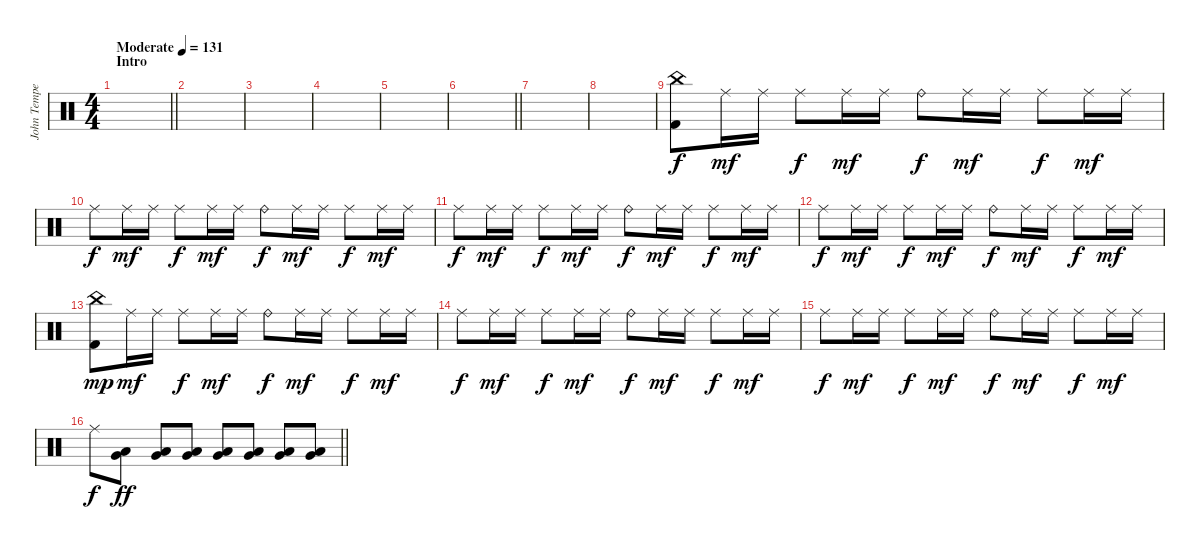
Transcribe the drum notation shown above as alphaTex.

\track ("John Tempesta" "John Tempe") {instrument percussion}
\staff {score}
\articulation defaults
\ts (4 4)
\section ("" "Intro")
\tempo (131 "Moderate")
\clef neutral
\barLineRight lightlight
\ks c
|
|
|
|
|
\barLineRight lightlight
|
|
|
("China (hit)" "Kick (hit) 2").8 "Ride (middle)".16{dy mf} "Ride (middle)".16 "Ride (middle)".8{dy f} "Ride (middle)".16{dy mf} "Ride (middle)".16 "Ride (bell)".8{dy f} "Ride (middle)".16{dy mf} "Ride (middle)".16 "Ride (middle)".8{dy f} "Ride (middle)".16{dy mf} "Ride (middle)".16 |
"Ride (middle)".8{dy f} "Ride (middle)".16{dy mf} "Ride (middle)".16 "Ride (middle)".8{dy f} "Ride (middle)".16{dy mf} "Ride (middle)".16 "Ride (bell)".8{dy f} "Ride (middle)".16{dy mf} "Ride (middle)".16 "Ride (middle)".8{dy f} "Ride (middle)".16{dy mf} "Ride (middle)".16 |
"Ride (middle)".8{dy f} "Ride (middle)".16{dy mf} "Ride (middle)".16 "Ride (middle)".8{dy f} "Ride (middle)".16{dy mf} "Ride (middle)".16 "Ride (bell)".8{dy f} "Ride (middle)".16{dy mf} "Ride (middle)".16 "Ride (middle)".8{dy f} "Ride (middle)".16{dy mf} "Ride (middle)".16 |
"Ride (middle)".8{dy f} "Ride (middle)".16{dy mf} "Ride (middle)".16 "Ride (middle)".8{dy f} "Ride (middle)".16{dy mf} "Ride (middle)".16 "Ride (bell)".8{dy f} "Ride (middle)".16{dy mf} "Ride (middle)".16 "Ride (middle)".8{dy f} "Ride (middle)".16{dy mf} "Ride (middle)".16 |
("China (hit)" "Kick (hit) 2").8{dy mp} "Ride (middle)".16{dy mf} "Ride (middle)".16 "Ride (middle)".8{dy f} "Ride (middle)".16{dy mf} "Ride (middle)".16 "Ride (bell)".8{dy f} "Ride (middle)".16{dy mf} "Ride (middle)".16 "Ride (middle)".8{dy f} "Ride (middle)".16{dy mf} "Ride (middle)".16 |
"Ride (middle)".8{dy f} "Ride (middle)".16{dy mf} "Ride (middle)".16 "Ride (middle)".8{dy f} "Ride (middle)".16{dy mf} "Ride (middle)".16 "Ride (bell)".8{dy f} "Ride (middle)".16{dy mf} "Ride (middle)".16 "Ride (middle)".8{dy f} "Ride (middle)".16{dy mf} "Ride (middle)".16 |
"Ride (middle)".8{dy f} "Ride (middle)".16{dy mf} "Ride (middle)".16 "Ride (middle)".8{dy f} "Ride (middle)".16{dy mf} "Ride (middle)".16 "Ride (bell)".8{dy f} "Ride (middle)".16{dy mf} "Ride (middle)".16 "Ride (middle)".8{dy f} "Ride (middle)".16{dy mf} "Ride (middle)".16 |
\barLineRight lightlight "Ride (middle)".8{dy f}
("Very Low Tom (hit)" "Low Floor Tom (hit)").8{dy ff} ("Very Low Tom (hit)" "Low Floor Tom (hit)").8 ("Very Low Tom (hit)" "Low Floor Tom (hit)").8 ("Very Low Tom (hit)" "Low Floor Tom (hit)").8 ("Very Low Tom (hit)" "Low Floor Tom (hit)").8 ("Very Low Tom (hit)" "Low Floor Tom (hit)").8 ("Very Low Tom (hit)" "Low Floor Tom (hit)").8
